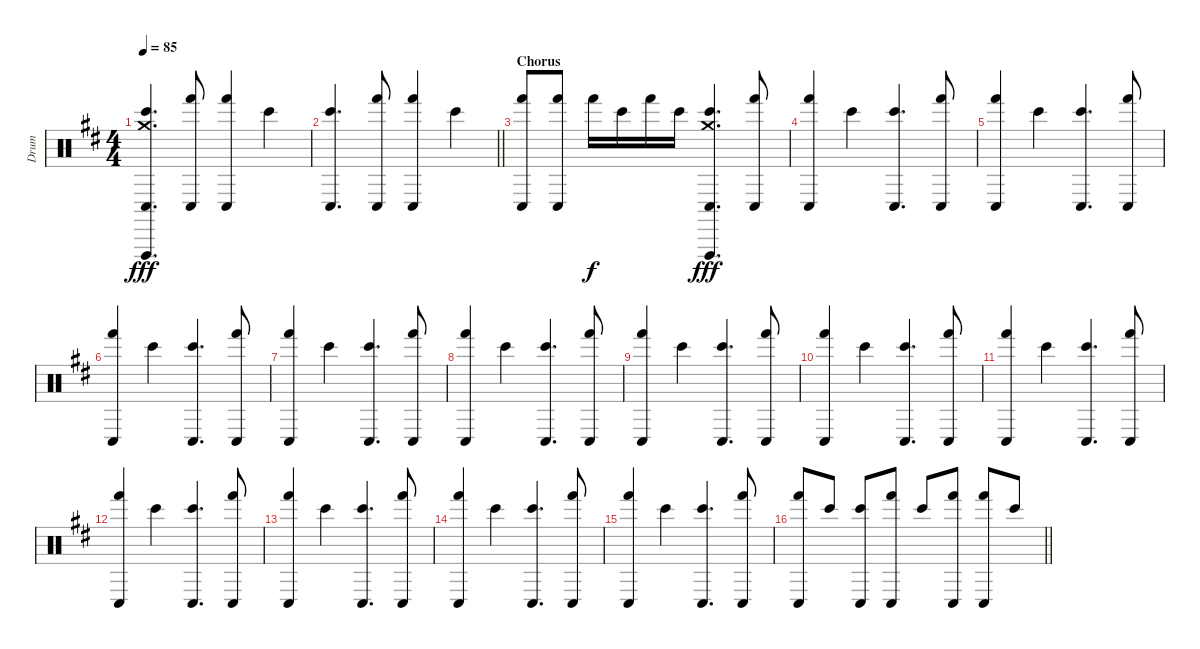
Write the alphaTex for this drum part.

\track ("Drum " "Drum ") {instrument percussion}
\staff {score}
\articulation defaults
\ts (4 4)
\tempo 85
\clef neutral
\ks d
("Conga low (hit)" "Bongo High (hit)" "Vibraslap (hit)" "Crash medium (hit)").4{d dy fff} ("Conga low (hit)" "Hand (hit)").8 ("Conga low (hit)" "Hand (hit)").4 "Bongo High (hit)".4 |
\barLineRight lightlight
("Conga low (hit)" "Bongo High (hit)").4{d} ("Conga low (hit)" "Hand (hit)").8 ("Conga low (hit)" "Hand (hit)").4 "Bongo High (hit)".4 |
\section ("" "Chorus")
("Conga low (hit)" "Hand (hit)").8 ("Conga low (hit)" "Hand (hit)").8 "Hand (hit)".16{dy f} "Bongo High (hit)".16 "Hand (hit)".16 "Bongo High (hit)".16 ("Conga low (hit)" "Bongo High (hit)" "Vibraslap (hit)" "Crash medium (hit)").4{d dy fff} ("Conga low (hit)" "Hand (hit)").8 |
("Conga low (hit)" "Hand (hit)").4 "Bongo High (hit)".4 ("Conga low (hit)" "Bongo High (hit)").4{d} ("Conga low (hit)" "Hand (hit)").8 |
("Conga low (hit)" "Hand (hit)").4 "Bongo High (hit)".4 ("Conga low (hit)" "Bongo High (hit)").4{d} ("Conga low (hit)" "Hand (hit)").8 |
("Conga low (hit)" "Hand (hit)").4 "Bongo High (hit)".4 ("Conga low (hit)" "Bongo High (hit)").4{d} ("Conga low (hit)" "Hand (hit)").8 |
("Conga low (hit)" "Hand (hit)").4 "Bongo High (hit)".4 ("Conga low (hit)" "Bongo High (hit)").4{d} ("Conga low (hit)" "Hand (hit)").8 |
("Conga low (hit)" "Hand (hit)").4 "Bongo High (hit)".4 ("Conga low (hit)" "Bongo High (hit)").4{d} ("Conga low (hit)" "Hand (hit)").8 |
("Conga low (hit)" "Hand (hit)").4 "Bongo High (hit)".4 ("Conga low (hit)" "Bongo High (hit)").4{d} ("Conga low (hit)" "Hand (hit)").8 |
("Conga low (hit)" "Hand (hit)").4 "Bongo High (hit)".4 ("Conga low (hit)" "Bongo High (hit)").4{d} ("Conga low (hit)" "Hand (hit)").8 |
("Conga low (hit)" "Hand (hit)").4 "Bongo High (hit)".4 ("Conga low (hit)" "Bongo High (hit)").4{d} ("Conga low (hit)" "Hand (hit)").8 |
("Conga low (hit)" "Hand (hit)").4 "Bongo High (hit)".4 ("Conga low (hit)" "Bongo High (hit)").4{d} ("Conga low (hit)" "Hand (hit)").8 |
("Conga low (hit)" "Hand (hit)").4 "Bongo High (hit)".4 ("Conga low (hit)" "Bongo High (hit)").4{d} ("Conga low (hit)" "Hand (hit)").8 |
("Conga low (hit)" "Hand (hit)").4 "Bongo High (hit)".4 ("Conga low (hit)" "Bongo High (hit)").4{d} ("Conga low (hit)" "Hand (hit)").8 |
("Conga low (hit)" "Hand (hit)").4 "Bongo High (hit)".4 ("Conga low (hit)" "Bongo High (hit)").4{d} ("Conga low (hit)" "Hand (hit)").8 |
\barLineRight lightlight
("Conga low (hit)" "Hand (hit)").8 "Bongo High (hit)".8 ("Conga low (hit)" "Bongo High (hit)").8 ("Conga low (hit)" "Hand (hit)").8 "Bongo High (hit)".8 ("Conga low (hit)" "Hand (hit)").8 ("Conga low (hit)" "Hand (hit)").8 "Bongo High (hit)".8
